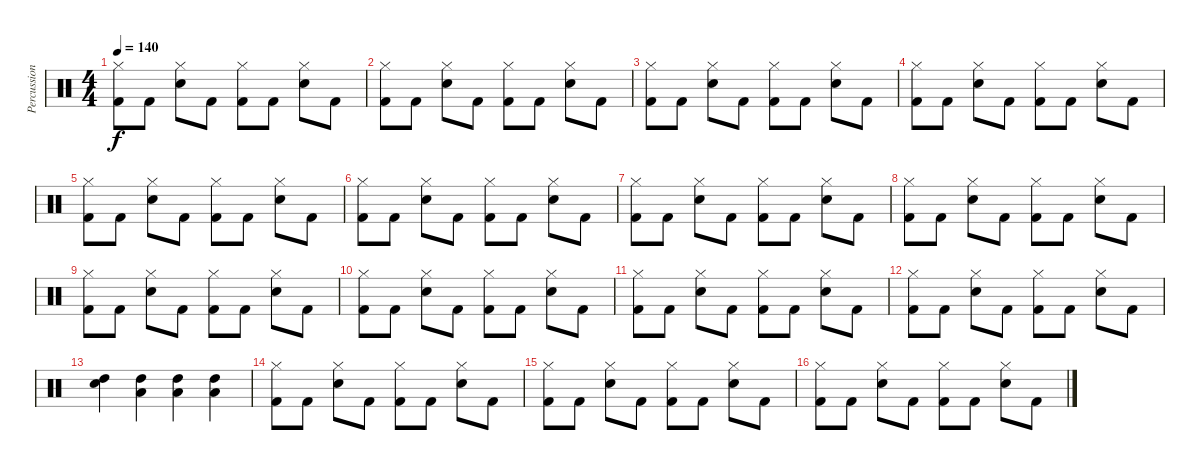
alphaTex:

\track ("Percussion" "Percussion") {instrument percussion}
\staff {score}
\articulation defaults
\ts (4 4)
\tempo 140
\clef neutral
\ks c
("Hi-Hat (closed)" "Kick (hit) 2").8{dy f} "Kick (hit) 2".8 ("Electric Snare (hit)" "Hi-Hat (closed)").8 "Kick (hit) 2".8 ("Hi-Hat (closed)" "Kick (hit) 2").8 "Kick (hit) 2".8 ("Electric Snare (hit)" "Hi-Hat (closed)").8 "Kick (hit) 2".8 |
("Hi-Hat (closed)" "Kick (hit) 2").8 "Kick (hit) 2".8 ("Electric Snare (hit)" "Hi-Hat (closed)").8 "Kick (hit) 2".8 ("Hi-Hat (closed)" "Kick (hit) 2").8 "Kick (hit) 2".8 ("Electric Snare (hit)" "Hi-Hat (closed)").8 "Kick (hit) 2".8 |
("Hi-Hat (closed)" "Kick (hit) 2").8 "Kick (hit) 2".8 ("Electric Snare (hit)" "Hi-Hat (closed)").8 "Kick (hit) 2".8 ("Hi-Hat (closed)" "Kick (hit) 2").8 "Kick (hit) 2".8 ("Electric Snare (hit)" "Hi-Hat (closed)").8 "Kick (hit) 2".8 |
("Hi-Hat (closed)" "Kick (hit) 2").8 "Kick (hit) 2".8 ("Electric Snare (hit)" "Hi-Hat (closed)").8 "Kick (hit) 2".8 ("Hi-Hat (closed)" "Kick (hit) 2").8 "Kick (hit) 2".8 ("Electric Snare (hit)" "Hi-Hat (closed)").8 "Kick (hit) 2".8 |
("Hi-Hat (closed)" "Kick (hit) 2").8 "Kick (hit) 2".8 ("Electric Snare (hit)" "Hi-Hat (closed)").8 "Kick (hit) 2".8 ("Hi-Hat (closed)" "Kick (hit) 2").8 "Kick (hit) 2".8 ("Electric Snare (hit)" "Hi-Hat (closed)").8 "Kick (hit) 2".8 |
("Hi-Hat (closed)" "Kick (hit) 2").8 "Kick (hit) 2".8 ("Electric Snare (hit)" "Hi-Hat (closed)").8 "Kick (hit) 2".8 ("Hi-Hat (closed)" "Kick (hit) 2").8 "Kick (hit) 2".8 ("Electric Snare (hit)" "Hi-Hat (closed)").8 "Kick (hit) 2".8 |
("Hi-Hat (closed)" "Kick (hit) 2").8 "Kick (hit) 2".8 ("Electric Snare (hit)" "Hi-Hat (closed)").8 "Kick (hit) 2".8 ("Hi-Hat (closed)" "Kick (hit) 2").8 "Kick (hit) 2".8 ("Electric Snare (hit)" "Hi-Hat (closed)").8 "Kick (hit) 2".8 |
("Hi-Hat (closed)" "Kick (hit) 2").8 "Kick (hit) 2".8 ("Electric Snare (hit)" "Hi-Hat (closed)").8 "Kick (hit) 2".8 ("Hi-Hat (closed)" "Kick (hit) 2").8 "Kick (hit) 2".8 ("Electric Snare (hit)" "Hi-Hat (closed)").8 "Kick (hit) 2".8 |
("Hi-Hat (closed)" "Kick (hit) 2").8 "Kick (hit) 2".8 ("Electric Snare (hit)" "Hi-Hat (closed)").8 "Kick (hit) 2".8 ("Hi-Hat (closed)" "Kick (hit) 2").8 "Kick (hit) 2".8 ("Electric Snare (hit)" "Hi-Hat (closed)").8 "Kick (hit) 2".8 |
("Hi-Hat (closed)" "Kick (hit) 2").8 "Kick (hit) 2".8 ("Electric Snare (hit)" "Hi-Hat (closed)").8 "Kick (hit) 2".8 ("Hi-Hat (closed)" "Kick (hit) 2").8 "Kick (hit) 2".8 ("Electric Snare (hit)" "Hi-Hat (closed)").8 "Kick (hit) 2".8 |
("Hi-Hat (closed)" "Kick (hit) 2").8 "Kick (hit) 2".8 ("Electric Snare (hit)" "Hi-Hat (closed)").8 "Kick (hit) 2".8 ("Hi-Hat (closed)" "Kick (hit) 2").8 "Kick (hit) 2".8 ("Electric Snare (hit)" "Hi-Hat (closed)").8 "Kick (hit) 2".8 |
("Hi-Hat (closed)" "Kick (hit) 2").8 "Kick (hit) 2".8 ("Electric Snare (hit)" "Hi-Hat (closed)").8 "Kick (hit) 2".8 ("Hi-Hat (closed)" "Kick (hit) 2").8 "Kick (hit) 2".8 ("Electric Snare (hit)" "Hi-Hat (closed)").8 "Kick (hit) 2".8 |
("High Tom (hit)" "Snare (hit) 2").4 ("High Tom (hit)" "Low Tom (hit)").4 ("High Tom (hit)" "Low Tom (hit)").4 ("High Tom (hit)" "Low Tom (hit)").4 |
("Hi-Hat (closed)" "Kick (hit) 2").8 "Kick (hit) 2".8 ("Electric Snare (hit)" "Hi-Hat (closed)").8 "Kick (hit) 2".8 ("Hi-Hat (closed)" "Kick (hit) 2").8 "Kick (hit) 2".8 ("Electric Snare (hit)" "Hi-Hat (closed)").8 "Kick (hit) 2".8 |
("Hi-Hat (closed)" "Kick (hit) 2").8 "Kick (hit) 2".8 ("Electric Snare (hit)" "Hi-Hat (closed)").8 "Kick (hit) 2".8 ("Hi-Hat (closed)" "Kick (hit) 2").8 "Kick (hit) 2".8 ("Electric Snare (hit)" "Hi-Hat (closed)").8 "Kick (hit) 2".8 |
("Hi-Hat (closed)" "Kick (hit) 2").8 "Kick (hit) 2".8 ("Electric Snare (hit)" "Hi-Hat (closed)").8 "Kick (hit) 2".8 ("Hi-Hat (closed)" "Kick (hit) 2").8 "Kick (hit) 2".8 ("Electric Snare (hit)" "Hi-Hat (closed)").8 "Kick (hit) 2".8
